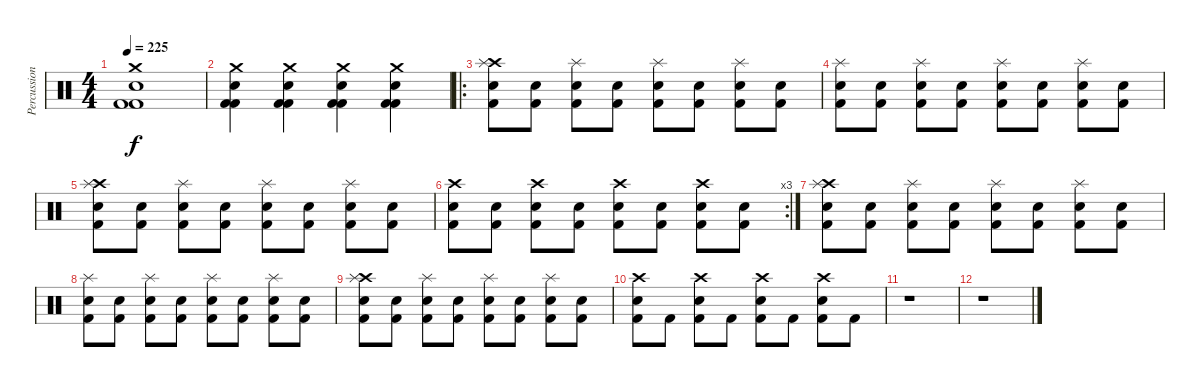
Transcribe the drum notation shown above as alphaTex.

\track ("Percussions" "Percussion") {instrument percussion}
\staff {score}
\articulation defaults
\ts (4 4)
\tempo 225
\clef neutral
\ks c
("Crash medium (hit)" "Kick (hit) 2" "Kick (hit) 2" "Snare (hit) 2").1{dy f} |
("Crash medium (hit)" "Kick (hit) 2" "Kick (hit) 2" "Snare (hit) 2").4 ("Crash medium (hit)" "Kick (hit) 2" "Kick (hit) 2" "Snare (hit) 2").4 ("Crash medium (hit)" "Kick (hit) 2" "Kick (hit) 2" "Snare (hit) 2").4 ("Crash medium (hit)" "Kick (hit) 2" "Kick (hit) 2" "Snare (hit) 2").4 |
\ro
("Crash high (hit)" "Kick (hit) 2" "Snare (hit) 2" "Splash (hit)").8 ("Kick (hit) 2" "Snare (hit) 2").8 ("Kick (hit) 2" "Snare (hit) 2" "Splash (hit)").8 ("Kick (hit) 2" "Snare (hit) 2").8 ("Kick (hit) 2" "Snare (hit) 2" "Splash (hit)").8 ("Kick (hit) 2" "Snare (hit) 2").8 ("Kick (hit) 2" "Snare (hit) 2" "Splash (hit)").8 ("Kick (hit) 2" "Snare (hit) 2").8 |
("Kick (hit) 2" "Snare (hit) 2" "Splash (hit)").8 ("Kick (hit) 2" "Snare (hit) 2").8 ("Kick (hit) 2" "Snare (hit) 2" "Splash (hit)").8 ("Kick (hit) 2" "Snare (hit) 2").8 ("Kick (hit) 2" "Snare (hit) 2" "Splash (hit)").8 ("Kick (hit) 2" "Snare (hit) 2").8 ("Kick (hit) 2" "Snare (hit) 2" "Splash (hit)").8 ("Kick (hit) 2" "Snare (hit) 2").8 |
("Crash high (hit)" "Kick (hit) 2" "Snare (hit) 2" "Splash (hit)").8 ("Kick (hit) 2" "Snare (hit) 2").8 ("Kick (hit) 2" "Snare (hit) 2" "Splash (hit)").8 ("Kick (hit) 2" "Snare (hit) 2").8 ("Kick (hit) 2" "Snare (hit) 2" "Splash (hit)").8 ("Kick (hit) 2" "Snare (hit) 2").8 ("Kick (hit) 2" "Snare (hit) 2" "Splash (hit)").8 ("Kick (hit) 2" "Snare (hit) 2").8 |
\rc 3
("Crash high (hit)" "Kick (hit) 2" "Snare (hit) 2").8 ("Kick (hit) 2" "Snare (hit) 2").8 ("Crash high (hit)" "Kick (hit) 2" "Snare (hit) 2").8 ("Kick (hit) 2" "Snare (hit) 2").8 ("Crash high (hit)" "Kick (hit) 2" "Snare (hit) 2").8 ("Kick (hit) 2" "Snare (hit) 2").8 ("Crash high (hit)" "Kick (hit) 2" "Snare (hit) 2").8 ("Kick (hit) 2" "Snare (hit) 2").8 |
("Crash high (hit)" "Kick (hit) 2" "Snare (hit) 2" "Splash (hit)").8 ("Kick (hit) 2" "Snare (hit) 2").8 ("Kick (hit) 2" "Snare (hit) 2" "Splash (hit)").8 ("Kick (hit) 2" "Snare (hit) 2").8 ("Kick (hit) 2" "Snare (hit) 2" "Splash (hit)").8 ("Kick (hit) 2" "Snare (hit) 2").8 ("Kick (hit) 2" "Snare (hit) 2" "Splash (hit)").8 ("Kick (hit) 2" "Snare (hit) 2").8 |
("Kick (hit) 2" "Snare (hit) 2" "Splash (hit)").8 ("Kick (hit) 2" "Snare (hit) 2").8 ("Kick (hit) 2" "Snare (hit) 2" "Splash (hit)").8 ("Kick (hit) 2" "Snare (hit) 2").8 ("Kick (hit) 2" "Snare (hit) 2" "Splash (hit)").8 ("Kick (hit) 2" "Snare (hit) 2").8 ("Kick (hit) 2" "Snare (hit) 2" "Splash (hit)").8 ("Kick (hit) 2" "Snare (hit) 2").8 |
("Crash high (hit)" "Kick (hit) 2" "Snare (hit) 2" "Splash (hit)").8 ("Kick (hit) 2" "Snare (hit) 2").8 ("Kick (hit) 2" "Snare (hit) 2" "Splash (hit)").8 ("Kick (hit) 2" "Snare (hit) 2").8 ("Kick (hit) 2" "Snare (hit) 2" "Splash (hit)").8 ("Kick (hit) 2" "Snare (hit) 2").8 ("Kick (hit) 2" "Snare (hit) 2" "Splash (hit)").8 ("Kick (hit) 2" "Snare (hit) 2").8 |
("Crash high (hit)" "Kick (hit) 2" "Snare (hit) 2").8 "Kick (hit) 2".8 ("Crash high (hit)" "Kick (hit) 2" "Snare (hit) 2").8 "Kick (hit) 2".8 ("Crash high (hit)" "Kick (hit) 2" "Snare (hit) 2").8 "Kick (hit) 2".8 ("Crash high (hit)" "Kick (hit) 2" "Snare (hit) 2").8 "Kick (hit) 2".8 |
r.1 |
r.1
